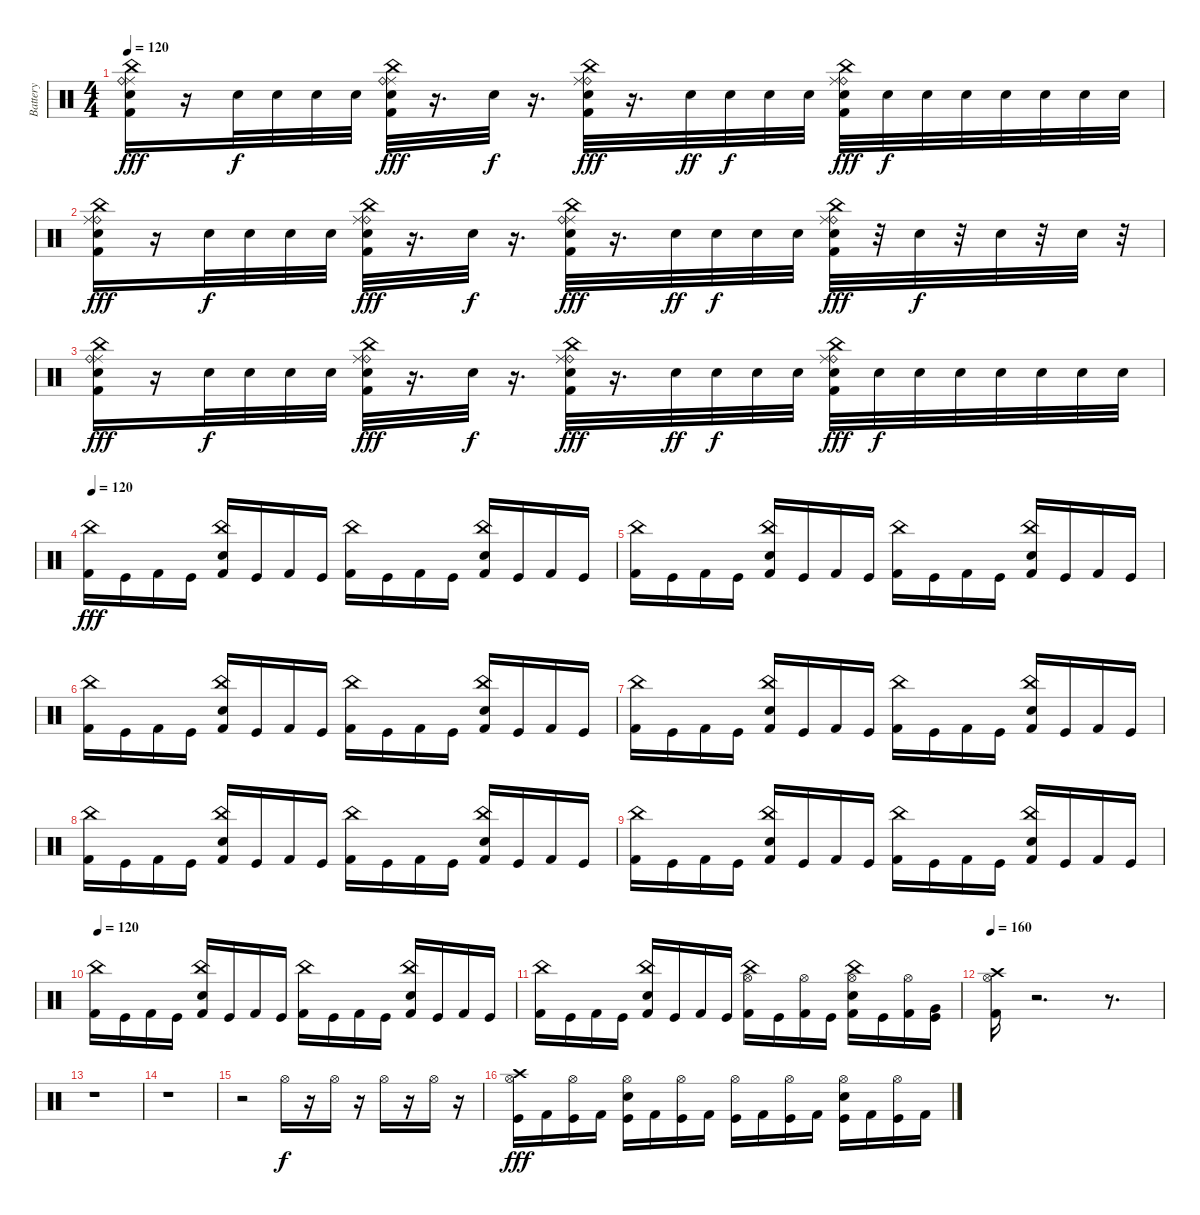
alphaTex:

\track ("Battery" "Battery") {instrument percussion}
\staff {score}
\articulation defaults
\ts (4 4)
\tempo 120
\clef neutral
\ks c
("Ride (middle)" "Electric Snare (hit)" "Ride (bell)" "China (hit)" "Kick (hit) 2").16{dy fff} r.16 "Electric Snare (hit)".32{dy f} "Electric Snare (hit)".32 "Electric Snare (hit)".32 "Electric Snare (hit)".32 ("Electric Snare (hit)" "Ride (middle)" "China (hit)" "Ride (bell)" "Kick (hit) 2").32{dy fff} r.16{d} "Electric Snare (hit)".32{dy f} r.16{d} ("Ride (bell)" "China (hit)" "Electric Snare (hit)" "Ride (middle)" "Kick (hit) 2").32{dy fff} r.16{d} "Electric Snare (hit)".32{dy ff} "Electric Snare (hit)".32{dy f} "Electric Snare (hit)".32 "Electric Snare (hit)".32 ("Ride (bell)" "Electric Snare (hit)" "China (hit)" "Ride (middle)" "Kick (hit) 2").32{dy fff} "Electric Snare (hit)".32{dy f} "Electric Snare (hit)".32 "Electric Snare (hit)".32 "Electric Snare (hit)".32 "Electric Snare (hit)".32 "Electric Snare (hit)".32 "Electric Snare (hit)".32 |
("Electric Snare (hit)" "Ride (bell)" "Ride (middle)" "China (hit)" "Kick (hit) 2").16{dy fff} r.16 "Electric Snare (hit)".32{dy f} "Electric Snare (hit)".32 "Electric Snare (hit)".32 "Electric Snare (hit)".32 ("Ride (bell)" "Electric Snare (hit)" "China (hit)" "Ride (middle)" "Kick (hit) 2").32{dy fff} r.16{d} "Electric Snare (hit)".32{dy f} r.16{d} ("China (hit)" "Electric Snare (hit)" "Ride (middle)" "Ride (bell)" "Kick (hit) 2").32{dy fff} r.16{d} "Electric Snare (hit)".32{dy ff} "Electric Snare (hit)".32{dy f} "Electric Snare (hit)".32 "Electric Snare (hit)".32 ("Ride (bell)" "Ride (middle)" "Electric Snare (hit)" "China (hit)" "Kick (hit) 2").32{dy fff} r.32 "Electric Snare (hit)".32{dy f} r.32 "Electric Snare (hit)".32 r.32 "Electric Snare (hit)".32 r.32 |
("Ride (middle)" "Ride (bell)" "Electric Snare (hit)" "China (hit)" "Kick (hit) 2").16{dy fff} r.16 "Electric Snare (hit)".32{dy f} "Electric Snare (hit)".32 "Electric Snare (hit)".32 "Electric Snare (hit)".32 ("China (hit)" "Electric Snare (hit)" "Ride (bell)" "Ride (middle)" "Kick (hit) 2").32{dy fff} r.16{d} "Electric Snare (hit)".32{dy f} r.16{d} ("Electric Snare (hit)" "China (hit)" "Ride (bell)" "Ride (middle)" "Kick (hit) 2").32{dy fff} r.16{d} "Electric Snare (hit)".32{dy ff} "Electric Snare (hit)".32{dy f} "Electric Snare (hit)".32 "Electric Snare (hit)".32 ("China (hit)" "Electric Snare (hit)" "Ride (bell)" "Ride (middle)" "Kick (hit) 2").32{dy fff} "Electric Snare (hit)".32{dy f} "Electric Snare (hit)".32 "Electric Snare (hit)".32 "Electric Snare (hit)".32 "Electric Snare (hit)".32 "Electric Snare (hit)".32 "Electric Snare (hit)".32 |
\tempo 120
("China (hit)" "Kick (hit) 2").16{dy fff} "Kick (hit)".16 "Kick (hit) 2".16 "Kick (hit)".16 ("Electric Snare (hit)" "China (hit)" "Kick (hit) 2").16 "Kick (hit)".16 "Kick (hit) 2".16 "Kick (hit)".16 ("China (hit)" "Kick (hit) 2").16 "Kick (hit)".16 "Kick (hit) 2".16 "Kick (hit)".16 ("Electric Snare (hit)" "China (hit)" "Kick (hit) 2").16 "Kick (hit)".16 "Kick (hit) 2".16 "Kick (hit)".16 |
("China (hit)" "Kick (hit) 2").16 "Kick (hit)".16 "Kick (hit) 2".16 "Kick (hit)".16 ("Electric Snare (hit)" "China (hit)" "Kick (hit) 2").16 "Kick (hit)".16 "Kick (hit) 2".16 "Kick (hit)".16 ("China (hit)" "Kick (hit) 2").16 "Kick (hit)".16 "Kick (hit) 2".16 "Kick (hit)".16 ("Electric Snare (hit)" "China (hit)" "Kick (hit) 2").16 "Kick (hit)".16 "Kick (hit) 2".16 "Kick (hit)".16 |
("China (hit)" "Kick (hit) 2").16 "Kick (hit)".16 "Kick (hit) 2".16 "Kick (hit)".16 ("Electric Snare (hit)" "China (hit)" "Kick (hit) 2").16 "Kick (hit)".16 "Kick (hit) 2".16 "Kick (hit)".16 ("China (hit)" "Kick (hit) 2").16 "Kick (hit)".16 "Kick (hit) 2".16 "Kick (hit)".16 ("Electric Snare (hit)" "China (hit)" "Kick (hit) 2").16 "Kick (hit)".16 "Kick (hit) 2".16 "Kick (hit)".16 |
("China (hit)" "Kick (hit) 2").16 "Kick (hit)".16 "Kick (hit) 2".16 "Kick (hit)".16 ("China (hit)" "Electric Snare (hit)" "Kick (hit) 2").16 "Kick (hit)".16 "Kick (hit) 2".16 "Kick (hit)".16 ("China (hit)" "Kick (hit) 2").16 "Kick (hit)".16 "Kick (hit) 2".16 "Kick (hit)".16 ("China (hit)" "Electric Snare (hit)" "Kick (hit) 2").16 "Kick (hit)".16 "Kick (hit) 2".16 "Kick (hit)".16 |
("China (hit)" "Kick (hit) 2").16 "Kick (hit)".16 "Kick (hit) 2".16 "Kick (hit)".16 ("China (hit)" "Electric Snare (hit)" "Kick (hit) 2").16 "Kick (hit)".16 "Kick (hit) 2".16 "Kick (hit)".16 ("China (hit)" "Kick (hit) 2").16 "Kick (hit)".16 "Kick (hit) 2".16 "Kick (hit)".16 ("Electric Snare (hit)" "China (hit)" "Kick (hit) 2").16 "Kick (hit)".16 "Kick (hit) 2".16 "Kick (hit)".16 |
("China (hit)" "Kick (hit) 2").16 "Kick (hit)".16 "Kick (hit) 2".16 "Kick (hit)".16 ("China (hit)" "Electric Snare (hit)" "Kick (hit) 2").16 "Kick (hit)".16 "Kick (hit) 2".16 "Kick (hit)".16 ("China (hit)" "Kick (hit) 2").16 "Kick (hit)".16 "Kick (hit) 2".16 "Kick (hit)".16 ("China (hit)" "Electric Snare (hit)" "Kick (hit) 2").16 "Kick (hit)".16 "Kick (hit) 2".16 "Kick (hit)".16 |
\tempo 120
("China (hit)" "Kick (hit) 2").16 "Kick (hit)".16 "Kick (hit) 2".16 "Kick (hit)".16 ("Electric Snare (hit)" "China (hit)" "Kick (hit) 2").16 "Kick (hit)".16 "Kick (hit) 2".16 "Kick (hit)".16 ("China (hit)" "Kick (hit) 2").16 "Kick (hit)".16 "Kick (hit) 2".16 "Kick (hit)".16 ("Electric Snare (hit)" "China (hit)" "Kick (hit) 2").16 "Kick (hit)".16 "Kick (hit) 2".16 "Kick (hit)".16 |
("China (hit)" "Kick (hit) 2").16 "Kick (hit)".16 "Kick (hit) 2".16 "Kick (hit)".16 ("Electric Snare (hit)" "China (hit)" "Kick (hit) 2").16 "Kick (hit)".16 "Kick (hit) 2".16 "Kick (hit)".16 ("China (hit)" "Hi-Hat (open)" "Kick (hit) 2").16 "Kick (hit)".16 ("Hi-Hat (open)" "Kick (hit) 2").16 "Kick (hit)".16 ("China (hit)" "Hi-Hat (open)" "Electric Snare (hit)" "Kick (hit) 2").16 "Kick (hit)".16 ("Hi-Hat (open)" "Kick (hit) 2").16 ("Very Low Tom (hit)" "Kick (hit)").16 |
\tempo 160
("Hi-Hat (open)" "Crash high (hit)" "Kick (hit) 2").16 r.2{d} r.8{d} |
r.1 |
r.1 |
r.2 "Hi-Hat (open)".16{dy f} r.16 "Hi-Hat (open)".16 r.16 "Hi-Hat (open)".16 r.16 "Hi-Hat (open)".16 r.16 |
("Hi-Hat (open)" "Crash high (hit)" "Kick (hit)").16{dy fff} "Kick (hit) 2".16 ("Hi-Hat (open)" "Kick (hit)").16 "Kick (hit) 2".16 ("Hi-Hat (open)" "Electric Snare (hit)" "Kick (hit)").16 "Kick (hit) 2".16 ("Hi-Hat (open)" "Kick (hit)").16 "Kick (hit) 2".16 ("Hi-Hat (open)" "Kick (hit)").16 "Kick (hit) 2".16 ("Hi-Hat (open)" "Kick (hit)").16 "Kick (hit) 2".16 ("Hi-Hat (open)" "Electric Snare (hit)" "Kick (hit)").16 "Kick (hit) 2".16 ("Hi-Hat (open)" "Kick (hit)").16 "Kick (hit) 2".16
